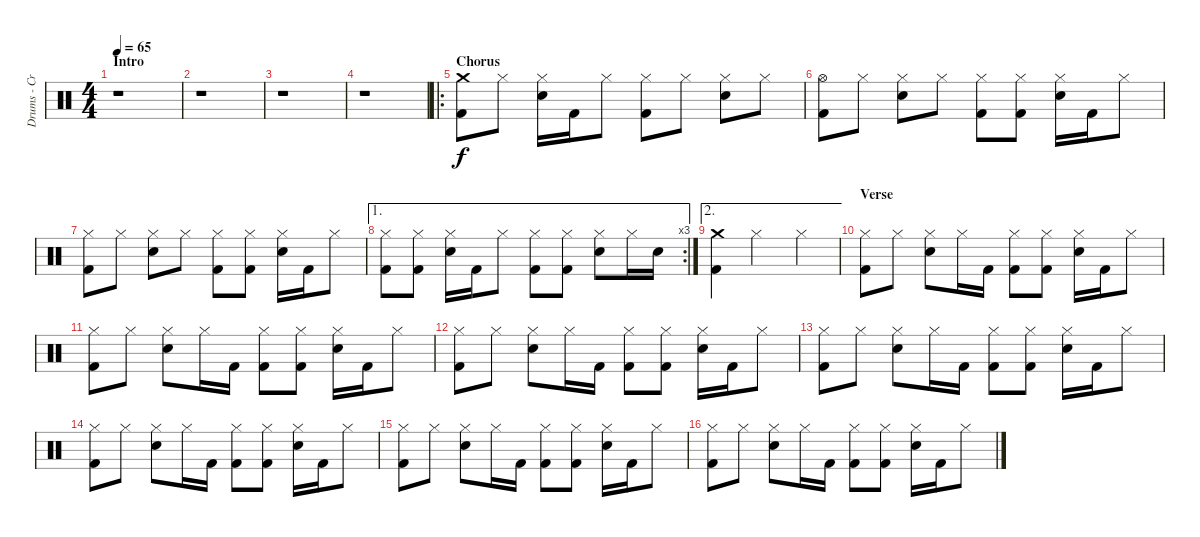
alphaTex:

\track ("Drums - Craig" "Drums - Cr") {instrument percussion}
\staff {score}
\articulation defaults
\ts (4 4)
\section ("" "Intro")
\tempo 65
\clef neutral
\ks c
r.1{dy f} |
r.1 |
r.1 |
r.1 |
\ro
\section ("" "Chorus")
("Crash medium (hit)" "Kick (hit) 2").8 "Hi-Hat (closed)".8 ("Hi-Hat (closed)" "Snare (hit) 2").16 "Kick (hit) 2".16 "Hi-Hat (closed)".8 ("Hi-Hat (closed)" "Kick (hit) 2").8 "Hi-Hat (closed)".8 ("Hi-Hat (closed)" "Snare (hit) 2").8 "Hi-Hat (closed)".8 |
("Hi-Hat (open)" "Kick (hit) 2").8 "Hi-Hat (closed)".8 ("Hi-Hat (closed)" "Snare (hit) 2").8 "Hi-Hat (closed)".8 ("Hi-Hat (closed)" "Kick (hit) 2").8 ("Hi-Hat (closed)" "Kick (hit) 2").8 ("Hi-Hat (closed)" "Snare (hit) 2").16 "Kick (hit) 2".16 "Hi-Hat (closed)".8 |
("Hi-Hat (closed)" "Kick (hit) 2").8 "Hi-Hat (closed)".8 ("Hi-Hat (closed)" "Snare (hit) 2").8 "Hi-Hat (closed)".8 ("Hi-Hat (closed)" "Kick (hit) 2").8 ("Hi-Hat (closed)" "Kick (hit) 2").8 ("Hi-Hat (closed)" "Snare (hit) 2").16 "Kick (hit) 2".16 "Hi-Hat (closed)".8 |
\ae 1
\rc 3
("Hi-Hat (closed)" "Kick (hit) 2").8 ("Hi-Hat (closed)" "Kick (hit) 2").8 ("Hi-Hat (closed)" "Snare (hit) 2").16 "Kick (hit) 2".16 "Hi-Hat (closed)".8 ("Hi-Hat (closed)" "Kick (hit) 2").8 ("Hi-Hat (closed)" "Kick (hit) 2").8 ("Hi-Hat (closed)" "Snare (hit) 2").8 "Hi-Hat (closed)".16 "Snare (hit) 2".16 |
\ae 2
("Crash medium (hit)" "Kick (hit) 2").4 "Hi-Hat (closed)".2 "Hi-Hat (closed)".4 |
\section ("" "Verse")
("Hi-Hat (closed)" "Kick (hit) 2").8 "Hi-Hat (closed)".8 ("Hi-Hat (closed)" "Snare (hit) 2").8 "Hi-Hat (closed)".16 "Kick (hit) 2".16 ("Hi-Hat (closed)" "Kick (hit) 2").8 ("Hi-Hat (closed)" "Kick (hit) 2").8 ("Hi-Hat (closed)" "Snare (hit) 2").16 "Kick (hit) 2".16 "Hi-Hat (closed)".8 |
("Hi-Hat (closed)" "Kick (hit) 2").8 "Hi-Hat (closed)".8 ("Hi-Hat (closed)" "Snare (hit) 2").8 "Hi-Hat (closed)".16 "Kick (hit) 2".16 ("Hi-Hat (closed)" "Kick (hit) 2").8 ("Hi-Hat (closed)" "Kick (hit) 2").8 ("Hi-Hat (closed)" "Snare (hit) 2").16 "Kick (hit) 2".16 "Hi-Hat (closed)".8 |
("Hi-Hat (closed)" "Kick (hit) 2").8 "Hi-Hat (closed)".8 ("Hi-Hat (closed)" "Snare (hit) 2").8 "Hi-Hat (closed)".16 "Kick (hit) 2".16 ("Hi-Hat (closed)" "Kick (hit) 2").8 ("Hi-Hat (closed)" "Kick (hit) 2").8 ("Hi-Hat (closed)" "Snare (hit) 2").16 "Kick (hit) 2".16 "Hi-Hat (closed)".8 |
("Hi-Hat (closed)" "Kick (hit) 2").8 "Hi-Hat (closed)".8 ("Hi-Hat (closed)" "Snare (hit) 2").8 "Hi-Hat (closed)".16 "Kick (hit) 2".16 ("Hi-Hat (closed)" "Kick (hit) 2").8 ("Hi-Hat (closed)" "Kick (hit) 2").8 ("Hi-Hat (closed)" "Snare (hit) 2").16 "Kick (hit) 2".16 "Hi-Hat (closed)".8 |
("Hi-Hat (closed)" "Kick (hit) 2").8 "Hi-Hat (closed)".8 ("Hi-Hat (closed)" "Snare (hit) 2").8 "Hi-Hat (closed)".16 "Kick (hit) 2".16 ("Hi-Hat (closed)" "Kick (hit) 2").8 ("Hi-Hat (closed)" "Kick (hit) 2").8 ("Hi-Hat (closed)" "Snare (hit) 2").16 "Kick (hit) 2".16 "Hi-Hat (closed)".8 |
("Hi-Hat (closed)" "Kick (hit) 2").8 "Hi-Hat (closed)".8 ("Hi-Hat (closed)" "Snare (hit) 2").8 "Hi-Hat (closed)".16 "Kick (hit) 2".16 ("Hi-Hat (closed)" "Kick (hit) 2").8 ("Hi-Hat (closed)" "Kick (hit) 2").8 ("Hi-Hat (closed)" "Snare (hit) 2").16 "Kick (hit) 2".16 "Hi-Hat (closed)".8 |
("Hi-Hat (closed)" "Kick (hit) 2").8 "Hi-Hat (closed)".8 ("Hi-Hat (closed)" "Snare (hit) 2").8 "Hi-Hat (closed)".16 "Kick (hit) 2".16 ("Hi-Hat (closed)" "Kick (hit) 2").8 ("Hi-Hat (closed)" "Kick (hit) 2").8 ("Hi-Hat (closed)" "Snare (hit) 2").16 "Kick (hit) 2".16 "Hi-Hat (closed)".8
